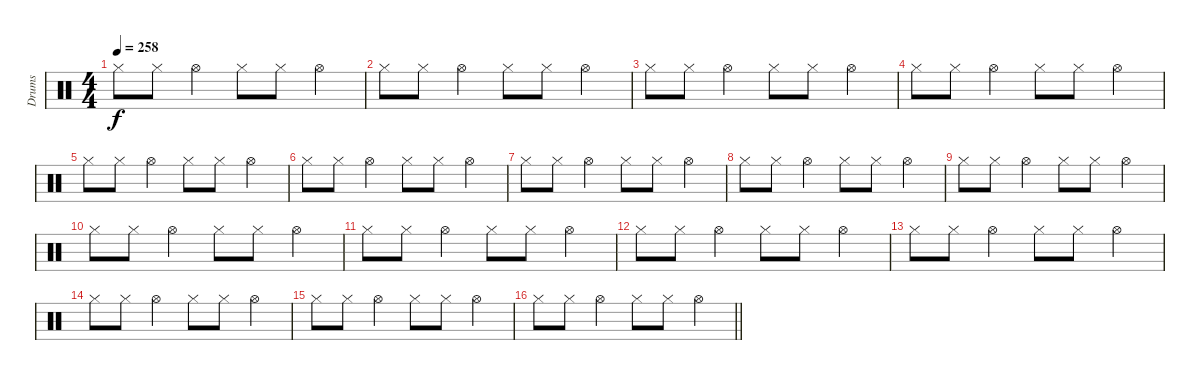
\track ("Drums" "Drums") {instrument percussion}
\staff {score}
\articulation defaults
\ts (4 4)
\section ("" "")
\tempo 258
\clef neutral
\ks c "Hi-Hat (closed)".8{dy f} "Hi-Hat (closed)".8 "Hi-Hat (open)".4 "Hi-Hat (closed)".8 "Hi-Hat (closed)".8 "Hi-Hat (open)".4
|
"Hi-Hat (closed)".8 "Hi-Hat (closed)".8 "Hi-Hat (open)".4 "Hi-Hat (closed)".8 "Hi-Hat (closed)".8 "Hi-Hat (open)".4 |
"Hi-Hat (closed)".8 "Hi-Hat (closed)".8 "Hi-Hat (open)".4 "Hi-Hat (closed)".8 "Hi-Hat (closed)".8 "Hi-Hat (open)".4 |
"Hi-Hat (closed)".8 "Hi-Hat (closed)".8 "Hi-Hat (open)".4 "Hi-Hat (closed)".8 "Hi-Hat (closed)".8 "Hi-Hat (open)".4 |
"Hi-Hat (closed)".8 "Hi-Hat (closed)".8 "Hi-Hat (open)".4 "Hi-Hat (closed)".8 "Hi-Hat (closed)".8 "Hi-Hat (open)".4 |
"Hi-Hat (closed)".8 "Hi-Hat (closed)".8 "Hi-Hat (open)".4 "Hi-Hat (closed)".8 "Hi-Hat (closed)".8 "Hi-Hat (open)".4 |
"Hi-Hat (closed)".8 "Hi-Hat (closed)".8 "Hi-Hat (open)".4 "Hi-Hat (closed)".8 "Hi-Hat (closed)".8 "Hi-Hat (open)".4 |
"Hi-Hat (closed)".8 "Hi-Hat (closed)".8 "Hi-Hat (open)".4 "Hi-Hat (closed)".8 "Hi-Hat (closed)".8 "Hi-Hat (open)".4 |
"Hi-Hat (closed)".8 "Hi-Hat (closed)".8 "Hi-Hat (open)".4 "Hi-Hat (closed)".8 "Hi-Hat (closed)".8 "Hi-Hat (open)".4 |
"Hi-Hat (closed)".8 "Hi-Hat (closed)".8 "Hi-Hat (open)".4 "Hi-Hat (closed)".8 "Hi-Hat (closed)".8 "Hi-Hat (open)".4 |
"Hi-Hat (closed)".8 "Hi-Hat (closed)".8 "Hi-Hat (open)".4 "Hi-Hat (closed)".8 "Hi-Hat (closed)".8 "Hi-Hat (open)".4 |
"Hi-Hat (closed)".8 "Hi-Hat (closed)".8 "Hi-Hat (open)".4 "Hi-Hat (closed)".8 "Hi-Hat (closed)".8 "Hi-Hat (open)".4 |
"Hi-Hat (closed)".8 "Hi-Hat (closed)".8 "Hi-Hat (open)".4 "Hi-Hat (closed)".8 "Hi-Hat (closed)".8 "Hi-Hat (open)".4 |
"Hi-Hat (closed)".8 "Hi-Hat (closed)".8 "Hi-Hat (open)".4 "Hi-Hat (closed)".8 "Hi-Hat (closed)".8 "Hi-Hat (open)".4 |
"Hi-Hat (closed)".8 "Hi-Hat (closed)".8 "Hi-Hat (open)".4 "Hi-Hat (closed)".8 "Hi-Hat (closed)".8 "Hi-Hat (open)".4 |
\barLineRight lightlight "Hi-Hat (closed)".8 "Hi-Hat (closed)".8 "Hi-Hat (open)".4 "Hi-Hat (closed)".8 "Hi-Hat (closed)".8 "Hi-Hat (open)".4
